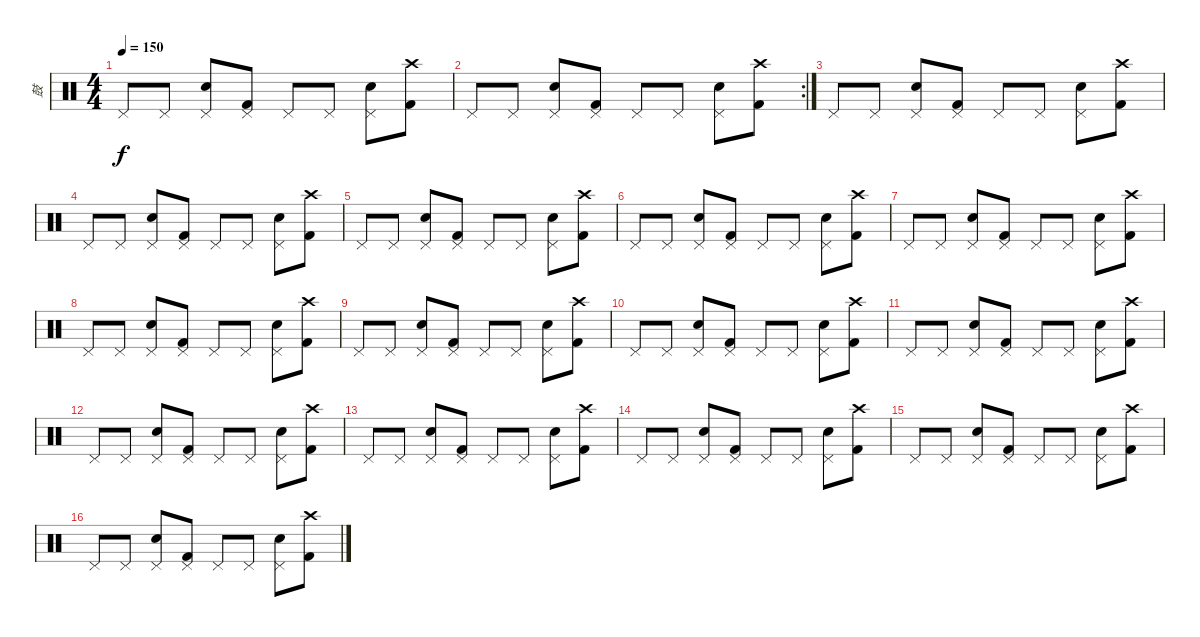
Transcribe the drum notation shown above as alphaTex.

\track ("鼓" "鼓") {instrument percussion}
\staff {score}
\articulation defaults
\ts (4 4)
\tempo 150
\clef neutral
\ks c "Pedal Hi-Hat (hit)".8{dy f} "Pedal Hi-Hat (hit)".8
("Pedal Hi-Hat (hit)" "Electric Snare (hit)").8 ("Pedal Hi-Hat (hit)" "Kick (hit) 2").8 "Pedal Hi-Hat (hit)".8 "Pedal Hi-Hat (hit)".8 ("Pedal Hi-Hat (hit)" "Electric Snare (hit)").8 ("Crash high (hit)" "Kick (hit) 2").8 |
\rc 2 "Pedal Hi-Hat (hit)".8 "Pedal Hi-Hat (hit)".8
("Pedal Hi-Hat (hit)" "Electric Snare (hit)").8 ("Pedal Hi-Hat (hit)" "Kick (hit) 2").8 "Pedal Hi-Hat (hit)".8 "Pedal Hi-Hat (hit)".8 ("Pedal Hi-Hat (hit)" "Electric Snare (hit)").8 ("Crash high (hit)" "Kick (hit) 2").8 |
"Pedal Hi-Hat (hit)".8 "Pedal Hi-Hat (hit)".8 ("Pedal Hi-Hat (hit)" "Electric Snare (hit)").8 ("Pedal Hi-Hat (hit)" "Kick (hit) 2").8 "Pedal Hi-Hat (hit)".8 "Pedal Hi-Hat (hit)".8 ("Pedal Hi-Hat (hit)" "Electric Snare (hit)").8 ("Crash high (hit)" "Kick (hit) 2").8 |
"Pedal Hi-Hat (hit)".8 "Pedal Hi-Hat (hit)".8 ("Pedal Hi-Hat (hit)" "Electric Snare (hit)").8 ("Pedal Hi-Hat (hit)" "Kick (hit) 2").8 "Pedal Hi-Hat (hit)".8 "Pedal Hi-Hat (hit)".8 ("Pedal Hi-Hat (hit)" "Electric Snare (hit)").8 ("Crash high (hit)" "Kick (hit) 2").8 |
"Pedal Hi-Hat (hit)".8 "Pedal Hi-Hat (hit)".8 ("Pedal Hi-Hat (hit)" "Electric Snare (hit)").8 ("Pedal Hi-Hat (hit)" "Kick (hit) 2").8 "Pedal Hi-Hat (hit)".8 "Pedal Hi-Hat (hit)".8 ("Pedal Hi-Hat (hit)" "Electric Snare (hit)").8 ("Crash high (hit)" "Kick (hit) 2").8 |
"Pedal Hi-Hat (hit)".8 "Pedal Hi-Hat (hit)".8 ("Pedal Hi-Hat (hit)" "Electric Snare (hit)").8 ("Pedal Hi-Hat (hit)" "Kick (hit) 2").8 "Pedal Hi-Hat (hit)".8 "Pedal Hi-Hat (hit)".8 ("Pedal Hi-Hat (hit)" "Electric Snare (hit)").8 ("Crash high (hit)" "Kick (hit) 2").8 |
"Pedal Hi-Hat (hit)".8 "Pedal Hi-Hat (hit)".8 ("Pedal Hi-Hat (hit)" "Electric Snare (hit)").8 ("Pedal Hi-Hat (hit)" "Kick (hit) 2").8 "Pedal Hi-Hat (hit)".8 "Pedal Hi-Hat (hit)".8 ("Pedal Hi-Hat (hit)" "Electric Snare (hit)").8 ("Crash high (hit)" "Kick (hit) 2").8 |
"Pedal Hi-Hat (hit)".8 "Pedal Hi-Hat (hit)".8 ("Pedal Hi-Hat (hit)" "Electric Snare (hit)").8 ("Pedal Hi-Hat (hit)" "Kick (hit) 2").8 "Pedal Hi-Hat (hit)".8 "Pedal Hi-Hat (hit)".8 ("Pedal Hi-Hat (hit)" "Electric Snare (hit)").8 ("Crash high (hit)" "Kick (hit) 2").8 |
"Pedal Hi-Hat (hit)".8 "Pedal Hi-Hat (hit)".8 ("Pedal Hi-Hat (hit)" "Electric Snare (hit)").8 ("Pedal Hi-Hat (hit)" "Kick (hit) 2").8 "Pedal Hi-Hat (hit)".8 "Pedal Hi-Hat (hit)".8 ("Pedal Hi-Hat (hit)" "Electric Snare (hit)").8 ("Crash high (hit)" "Kick (hit) 2").8 |
"Pedal Hi-Hat (hit)".8 "Pedal Hi-Hat (hit)".8 ("Pedal Hi-Hat (hit)" "Electric Snare (hit)").8 ("Pedal Hi-Hat (hit)" "Kick (hit) 2").8 "Pedal Hi-Hat (hit)".8 "Pedal Hi-Hat (hit)".8 ("Pedal Hi-Hat (hit)" "Electric Snare (hit)").8 ("Crash high (hit)" "Kick (hit) 2").8 |
"Pedal Hi-Hat (hit)".8 "Pedal Hi-Hat (hit)".8 ("Pedal Hi-Hat (hit)" "Electric Snare (hit)").8 ("Pedal Hi-Hat (hit)" "Kick (hit) 2").8 "Pedal Hi-Hat (hit)".8 "Pedal Hi-Hat (hit)".8 ("Pedal Hi-Hat (hit)" "Electric Snare (hit)").8 ("Crash high (hit)" "Kick (hit) 2").8 |
"Pedal Hi-Hat (hit)".8 "Pedal Hi-Hat (hit)".8 ("Pedal Hi-Hat (hit)" "Electric Snare (hit)").8 ("Pedal Hi-Hat (hit)" "Kick (hit) 2").8 "Pedal Hi-Hat (hit)".8 "Pedal Hi-Hat (hit)".8 ("Pedal Hi-Hat (hit)" "Electric Snare (hit)").8 ("Crash high (hit)" "Kick (hit) 2").8 |
"Pedal Hi-Hat (hit)".8 "Pedal Hi-Hat (hit)".8 ("Pedal Hi-Hat (hit)" "Electric Snare (hit)").8 ("Pedal Hi-Hat (hit)" "Kick (hit) 2").8 "Pedal Hi-Hat (hit)".8 "Pedal Hi-Hat (hit)".8 ("Pedal Hi-Hat (hit)" "Electric Snare (hit)").8 ("Crash high (hit)" "Kick (hit) 2").8 |
"Pedal Hi-Hat (hit)".8 "Pedal Hi-Hat (hit)".8 ("Pedal Hi-Hat (hit)" "Electric Snare (hit)").8 ("Pedal Hi-Hat (hit)" "Kick (hit) 2").8 "Pedal Hi-Hat (hit)".8 "Pedal Hi-Hat (hit)".8 ("Pedal Hi-Hat (hit)" "Electric Snare (hit)").8 ("Crash high (hit)" "Kick (hit) 2").8 |
"Pedal Hi-Hat (hit)".8 "Pedal Hi-Hat (hit)".8 ("Pedal Hi-Hat (hit)" "Electric Snare (hit)").8 ("Pedal Hi-Hat (hit)" "Kick (hit) 2").8 "Pedal Hi-Hat (hit)".8 "Pedal Hi-Hat (hit)".8 ("Pedal Hi-Hat (hit)" "Electric Snare (hit)").8 ("Crash high (hit)" "Kick (hit) 2").8 |
"Pedal Hi-Hat (hit)".8 "Pedal Hi-Hat (hit)".8 ("Pedal Hi-Hat (hit)" "Electric Snare (hit)").8 ("Pedal Hi-Hat (hit)" "Kick (hit) 2").8 "Pedal Hi-Hat (hit)".8 "Pedal Hi-Hat (hit)".8 ("Pedal Hi-Hat (hit)" "Electric Snare (hit)").8 ("Crash high (hit)" "Kick (hit) 2").8
